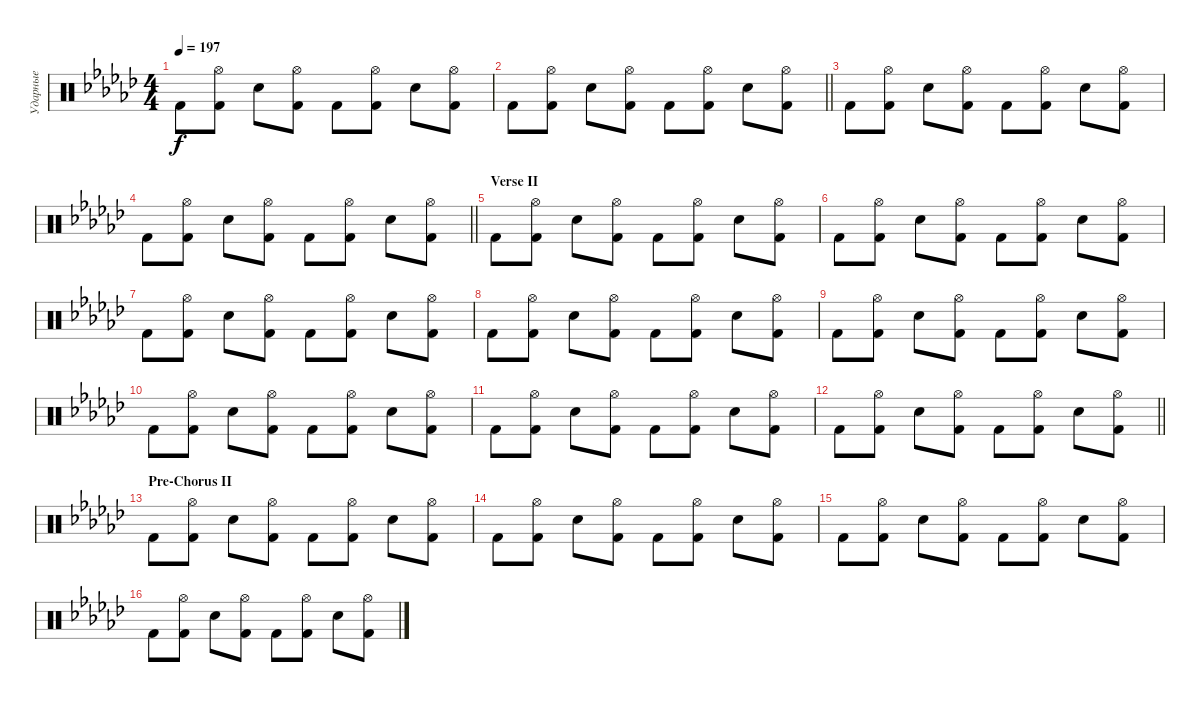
\track ("Ударные" "Ударные") {instrument percussion}
\staff {score}
\articulation defaults
\ts (4 4)
\tempo 197
\clef neutral
\ks gb "Kick (hit) 2".8{dy f}
("Hi-Hat (open)" "Kick (hit) 2").8 "Snare (hit) 2".8 ("Hi-Hat (open)" "Kick (hit) 2").8 "Kick (hit) 2".8 ("Hi-Hat (open)" "Kick (hit) 2").8 "Snare (hit) 2".8 ("Hi-Hat (open)" "Kick (hit) 2").8 |
\barLineRight lightlight "Kick (hit) 2".8
("Hi-Hat (open)" "Kick (hit) 2").8 "Snare (hit) 2".8 ("Hi-Hat (open)" "Kick (hit) 2").8 "Kick (hit) 2".8 ("Hi-Hat (open)" "Kick (hit) 2").8 "Snare (hit) 2".8 ("Hi-Hat (open)" "Kick (hit) 2").8 |
"Kick (hit) 2".8 ("Hi-Hat (open)" "Kick (hit) 2").8 "Snare (hit) 2".8 ("Hi-Hat (open)" "Kick (hit) 2").8 "Kick (hit) 2".8 ("Hi-Hat (open)" "Kick (hit) 2").8 "Snare (hit) 2".8 ("Hi-Hat (open)" "Kick (hit) 2").8 |
\barLineRight lightlight "Kick (hit) 2".8
("Hi-Hat (open)" "Kick (hit) 2").8 "Snare (hit) 2".8 ("Hi-Hat (open)" "Kick (hit) 2").8 "Kick (hit) 2".8 ("Hi-Hat (open)" "Kick (hit) 2").8 "Snare (hit) 2".8 ("Hi-Hat (open)" "Kick (hit) 2").8 |
\section ("" "Verse II")
"Kick (hit) 2".8 ("Hi-Hat (open)" "Kick (hit) 2").8 "Snare (hit) 2".8 ("Hi-Hat (open)" "Kick (hit) 2").8 "Kick (hit) 2".8 ("Hi-Hat (open)" "Kick (hit) 2").8 "Snare (hit) 2".8 ("Hi-Hat (open)" "Kick (hit) 2").8 |
"Kick (hit) 2".8 ("Hi-Hat (open)" "Kick (hit) 2").8 "Snare (hit) 2".8 ("Hi-Hat (open)" "Kick (hit) 2").8 "Kick (hit) 2".8 ("Hi-Hat (open)" "Kick (hit) 2").8 "Snare (hit) 2".8 ("Hi-Hat (open)" "Kick (hit) 2").8 |
"Kick (hit) 2".8 ("Hi-Hat (open)" "Kick (hit) 2").8 "Snare (hit) 2".8 ("Hi-Hat (open)" "Kick (hit) 2").8 "Kick (hit) 2".8 ("Hi-Hat (open)" "Kick (hit) 2").8 "Snare (hit) 2".8 ("Hi-Hat (open)" "Kick (hit) 2").8 |
"Kick (hit) 2".8 ("Hi-Hat (open)" "Kick (hit) 2").8 "Snare (hit) 2".8 ("Hi-Hat (open)" "Kick (hit) 2").8 "Kick (hit) 2".8 ("Hi-Hat (open)" "Kick (hit) 2").8 "Snare (hit) 2".8 ("Hi-Hat (open)" "Kick (hit) 2").8 |
"Kick (hit) 2".8 ("Hi-Hat (open)" "Kick (hit) 2").8 "Snare (hit) 2".8 ("Hi-Hat (open)" "Kick (hit) 2").8 "Kick (hit) 2".8 ("Hi-Hat (open)" "Kick (hit) 2").8 "Snare (hit) 2".8 ("Hi-Hat (open)" "Kick (hit) 2").8 |
"Kick (hit) 2".8 ("Hi-Hat (open)" "Kick (hit) 2").8 "Snare (hit) 2".8 ("Hi-Hat (open)" "Kick (hit) 2").8 "Kick (hit) 2".8 ("Hi-Hat (open)" "Kick (hit) 2").8 "Snare (hit) 2".8 ("Hi-Hat (open)" "Kick (hit) 2").8 |
"Kick (hit) 2".8 ("Hi-Hat (open)" "Kick (hit) 2").8 "Snare (hit) 2".8 ("Hi-Hat (open)" "Kick (hit) 2").8 "Kick (hit) 2".8 ("Hi-Hat (open)" "Kick (hit) 2").8 "Snare (hit) 2".8 ("Hi-Hat (open)" "Kick (hit) 2").8 |
\barLineRight lightlight "Kick (hit) 2".8
("Hi-Hat (open)" "Kick (hit) 2").8 "Snare (hit) 2".8 ("Hi-Hat (open)" "Kick (hit) 2").8 "Kick (hit) 2".8 ("Hi-Hat (open)" "Kick (hit) 2").8 "Snare (hit) 2".8 ("Hi-Hat (open)" "Kick (hit) 2").8 |
\section ("" "Pre-Chorus II")
"Kick (hit) 2".8 ("Hi-Hat (open)" "Kick (hit) 2").8 "Snare (hit) 2".8 ("Hi-Hat (open)" "Kick (hit) 2").8 "Kick (hit) 2".8 ("Hi-Hat (open)" "Kick (hit) 2").8 "Snare (hit) 2".8 ("Hi-Hat (open)" "Kick (hit) 2").8 |
"Kick (hit) 2".8 ("Hi-Hat (open)" "Kick (hit) 2").8 "Snare (hit) 2".8 ("Hi-Hat (open)" "Kick (hit) 2").8 "Kick (hit) 2".8 ("Hi-Hat (open)" "Kick (hit) 2").8 "Snare (hit) 2".8 ("Hi-Hat (open)" "Kick (hit) 2").8 |
"Kick (hit) 2".8 ("Hi-Hat (open)" "Kick (hit) 2").8 "Snare (hit) 2".8 ("Hi-Hat (open)" "Kick (hit) 2").8 "Kick (hit) 2".8 ("Hi-Hat (open)" "Kick (hit) 2").8 "Snare (hit) 2".8 ("Hi-Hat (open)" "Kick (hit) 2").8 |
"Kick (hit) 2".8 ("Hi-Hat (open)" "Kick (hit) 2").8 "Snare (hit) 2".8 ("Hi-Hat (open)" "Kick (hit) 2").8 "Kick (hit) 2".8 ("Hi-Hat (open)" "Kick (hit) 2").8 "Snare (hit) 2".8 ("Hi-Hat (open)" "Kick (hit) 2").8
